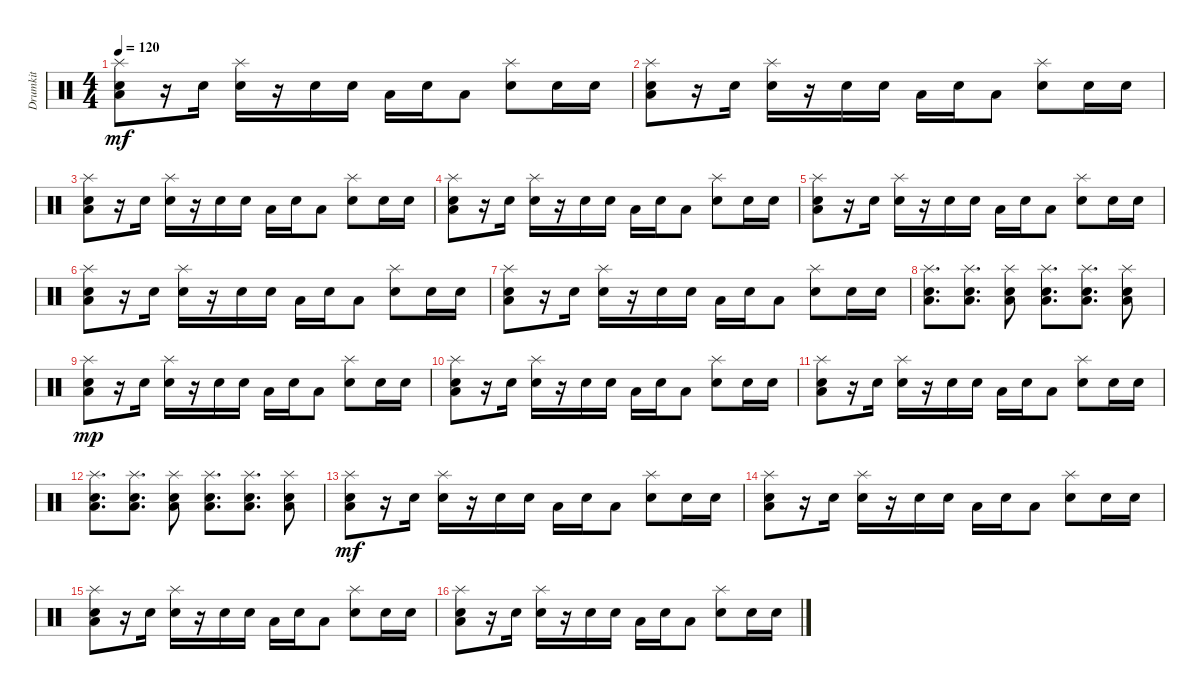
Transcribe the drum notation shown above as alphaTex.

\track ("Drumkit" "Drumkit") {instrument percussion}
\staff {score}
\articulation defaults
\ts (4 4)
\tempo 120
\clef neutral
\ks c
("Low Floor Tom (hit)" "Snare (hit) 2" "Splash (hit)").8{dy mf} r.16 "Snare (hit) 2".16 ("Snare (hit) 2" "Splash (hit)").16 r.16 "Snare (hit) 2".16 "Snare (hit) 2".16 "Low Floor Tom (hit)".16 "Snare (hit) 2".16 "Low Floor Tom (hit)".8 ("Snare (hit) 2" "Splash (hit)").8 "Snare (hit) 2".16 "Snare (hit) 2".16 |
("Low Floor Tom (hit)" "Snare (hit) 2" "Splash (hit)").8 r.16 "Snare (hit) 2".16 ("Snare (hit) 2" "Splash (hit)").16 r.16 "Snare (hit) 2".16 "Snare (hit) 2".16 "Low Floor Tom (hit)".16 "Snare (hit) 2".16 "Low Floor Tom (hit)".8 ("Snare (hit) 2" "Splash (hit)").8 "Snare (hit) 2".16 "Snare (hit) 2".16 |
("Low Floor Tom (hit)" "Snare (hit) 2" "Splash (hit)").8 r.16 "Snare (hit) 2".16 ("Snare (hit) 2" "Splash (hit)").16 r.16 "Snare (hit) 2".16 "Snare (hit) 2".16 "Low Floor Tom (hit)".16 "Snare (hit) 2".16 "Low Floor Tom (hit)".8 ("Snare (hit) 2" "Splash (hit)").8 "Snare (hit) 2".16 "Snare (hit) 2".16 |
("Low Floor Tom (hit)" "Snare (hit) 2" "Splash (hit)").8 r.16 "Snare (hit) 2".16 ("Snare (hit) 2" "Splash (hit)").16 r.16 "Snare (hit) 2".16 "Snare (hit) 2".16 "Low Floor Tom (hit)".16 "Snare (hit) 2".16 "Low Floor Tom (hit)".8 ("Snare (hit) 2" "Splash (hit)").8 "Snare (hit) 2".16 "Snare (hit) 2".16 |
("Low Floor Tom (hit)" "Snare (hit) 2" "Splash (hit)").8 r.16 "Snare (hit) 2".16 ("Snare (hit) 2" "Splash (hit)").16 r.16 "Snare (hit) 2".16 "Snare (hit) 2".16 "Low Floor Tom (hit)".16 "Snare (hit) 2".16 "Low Floor Tom (hit)".8 ("Snare (hit) 2" "Splash (hit)").8 "Snare (hit) 2".16 "Snare (hit) 2".16 |
("Low Floor Tom (hit)" "Snare (hit) 2" "Splash (hit)").8 r.16 "Snare (hit) 2".16 ("Snare (hit) 2" "Splash (hit)").16 r.16 "Snare (hit) 2".16 "Snare (hit) 2".16 "Low Floor Tom (hit)".16 "Snare (hit) 2".16 "Low Floor Tom (hit)".8 ("Snare (hit) 2" "Splash (hit)").8 "Snare (hit) 2".16 "Snare (hit) 2".16 |
("Low Floor Tom (hit)" "Snare (hit) 2" "Splash (hit)").8 r.16 "Snare (hit) 2".16 ("Snare (hit) 2" "Splash (hit)").16 r.16 "Snare (hit) 2".16 "Snare (hit) 2".16 "Low Floor Tom (hit)".16 "Snare (hit) 2".16 "Low Floor Tom (hit)".8 ("Snare (hit) 2" "Splash (hit)").8 "Snare (hit) 2".16 "Snare (hit) 2".16 |
("Low Floor Tom (hit)" "Snare (hit) 2" "Splash (hit)").8{d} ("Low Floor Tom (hit)" "Snare (hit) 2" "Splash (hit)").8{d} ("Low Floor Tom (hit)" "Snare (hit) 2" "Splash (hit)").8 ("Low Floor Tom (hit)" "Snare (hit) 2" "Splash (hit)").8{d} ("Low Floor Tom (hit)" "Snare (hit) 2" "Splash (hit)").8{d} ("Low Floor Tom (hit)" "Snare (hit) 2" "Splash (hit)").8 |
("Low Floor Tom (hit)" "Snare (hit) 2" "Splash (hit)").8{dy mp} r.16 "Snare (hit) 2".16 ("Snare (hit) 2" "Splash (hit)").16 r.16 "Snare (hit) 2".16 "Snare (hit) 2".16 "Low Floor Tom (hit)".16 "Snare (hit) 2".16 "Low Floor Tom (hit)".8 ("Snare (hit) 2" "Splash (hit)").8 "Snare (hit) 2".16 "Snare (hit) 2".16 |
("Low Floor Tom (hit)" "Snare (hit) 2" "Splash (hit)").8 r.16 "Snare (hit) 2".16 ("Snare (hit) 2" "Splash (hit)").16 r.16 "Snare (hit) 2".16 "Snare (hit) 2".16 "Low Floor Tom (hit)".16 "Snare (hit) 2".16 "Low Floor Tom (hit)".8 ("Snare (hit) 2" "Splash (hit)").8 "Snare (hit) 2".16 "Snare (hit) 2".16 |
("Low Floor Tom (hit)" "Snare (hit) 2" "Splash (hit)").8 r.16 "Snare (hit) 2".16 ("Snare (hit) 2" "Splash (hit)").16 r.16 "Snare (hit) 2".16 "Snare (hit) 2".16 "Low Floor Tom (hit)".16 "Snare (hit) 2".16 "Low Floor Tom (hit)".8 ("Snare (hit) 2" "Splash (hit)").8 "Snare (hit) 2".16 "Snare (hit) 2".16 |
("Low Floor Tom (hit)" "Snare (hit) 2" "Splash (hit)").8{d} ("Low Floor Tom (hit)" "Snare (hit) 2" "Splash (hit)").8{d} ("Low Floor Tom (hit)" "Snare (hit) 2" "Splash (hit)").8 ("Low Floor Tom (hit)" "Snare (hit) 2" "Splash (hit)").8{d} ("Low Floor Tom (hit)" "Snare (hit) 2" "Splash (hit)").8{d} ("Low Floor Tom (hit)" "Snare (hit) 2" "Splash (hit)").8 |
("Low Floor Tom (hit)" "Snare (hit) 2" "Splash (hit)").8{dy mf} r.16 "Snare (hit) 2".16 ("Snare (hit) 2" "Splash (hit)").16 r.16 "Snare (hit) 2".16 "Snare (hit) 2".16 "Low Floor Tom (hit)".16 "Snare (hit) 2".16 "Low Floor Tom (hit)".8 ("Snare (hit) 2" "Splash (hit)").8 "Snare (hit) 2".16 "Snare (hit) 2".16 |
("Low Floor Tom (hit)" "Snare (hit) 2" "Splash (hit)").8 r.16 "Snare (hit) 2".16 ("Snare (hit) 2" "Splash (hit)").16 r.16 "Snare (hit) 2".16 "Snare (hit) 2".16 "Low Floor Tom (hit)".16 "Snare (hit) 2".16 "Low Floor Tom (hit)".8 ("Snare (hit) 2" "Splash (hit)").8 "Snare (hit) 2".16 "Snare (hit) 2".16 |
("Low Floor Tom (hit)" "Snare (hit) 2" "Splash (hit)").8 r.16 "Snare (hit) 2".16 ("Snare (hit) 2" "Splash (hit)").16 r.16 "Snare (hit) 2".16 "Snare (hit) 2".16 "Low Floor Tom (hit)".16 "Snare (hit) 2".16 "Low Floor Tom (hit)".8 ("Snare (hit) 2" "Splash (hit)").8 "Snare (hit) 2".16 "Snare (hit) 2".16 |
("Low Floor Tom (hit)" "Snare (hit) 2" "Splash (hit)").8 r.16 "Snare (hit) 2".16 ("Snare (hit) 2" "Splash (hit)").16 r.16 "Snare (hit) 2".16 "Snare (hit) 2".16 "Low Floor Tom (hit)".16 "Snare (hit) 2".16 "Low Floor Tom (hit)".8 ("Snare (hit) 2" "Splash (hit)").8 "Snare (hit) 2".16 "Snare (hit) 2".16
